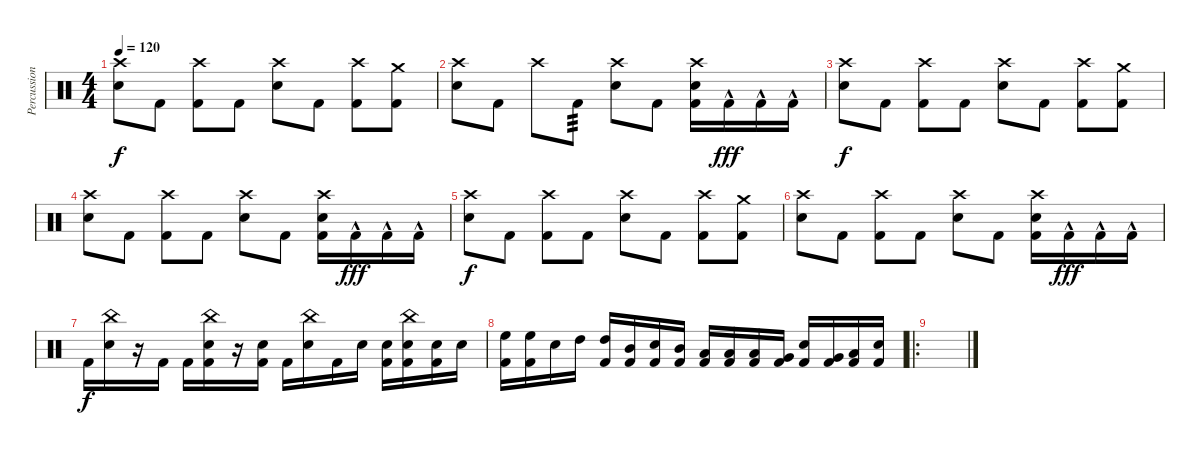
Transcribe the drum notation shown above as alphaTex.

\track ("Percussion" "Percussion") {instrument percussion}
\staff {score}
\articulation defaults
\ts (4 4)
\tempo 120
\clef neutral
\ks c
("Crash high (hit)" "Snare (hit) 2").8{dy f} "Kick (hit) 2".8 ("Crash high (hit)" "Kick (hit) 2").8 "Kick (hit) 2".8 ("Crash high (hit)" "Snare (hit) 2").8 "Kick (hit) 2".8 ("Crash high (hit)" "Kick (hit) 2").8 ("Crash medium (hit)" "Kick (hit) 2").8 |
("Crash high (hit)" "Snare (hit) 2").8 "Kick (hit) 2".8 "Crash high (hit)".8 "Kick (hit) 2".8{tp 3} ("Crash high (hit)" "Snare (hit) 2").8 "Kick (hit) 2".8 ("Crash high (hit)" "Snare (hit) 2" "Kick (hit) 2").16 "Kick (hit) 2"{hac}.16{dy fff} "Kick (hit) 2"{hac}.16 "Kick (hit) 2"{hac}.16 |
("Crash high (hit)" "Snare (hit) 2").8{dy f} "Kick (hit) 2".8 ("Crash high (hit)" "Kick (hit) 2").8 "Kick (hit) 2".8 ("Crash high (hit)" "Snare (hit) 2").8 "Kick (hit) 2".8 ("Crash high (hit)" "Kick (hit) 2").8 ("Crash medium (hit)" "Kick (hit) 2").8 |
("Crash high (hit)" "Snare (hit) 2").8 "Kick (hit) 2".8 ("Crash high (hit)" "Kick (hit) 2").8 "Kick (hit) 2".8 ("Crash high (hit)" "Snare (hit) 2").8 "Kick (hit) 2".8 ("Crash high (hit)" "Snare (hit) 2" "Kick (hit) 2").16 "Kick (hit) 2"{hac}.16{dy fff} "Kick (hit) 2"{hac}.16 "Kick (hit) 2"{hac}.16 |
("Crash high (hit)" "Snare (hit) 2").8{dy f} "Kick (hit) 2".8 ("Crash high (hit)" "Kick (hit) 2").8 "Kick (hit) 2".8 ("Crash high (hit)" "Snare (hit) 2").8 "Kick (hit) 2".8 ("Crash high (hit)" "Kick (hit) 2").8 ("Crash medium (hit)" "Kick (hit) 2").8 |
("Crash high (hit)" "Snare (hit) 2").8 "Kick (hit) 2".8 ("Crash high (hit)" "Kick (hit) 2").8 "Kick (hit) 2".8 ("Crash high (hit)" "Snare (hit) 2").8 "Kick (hit) 2".8 ("Crash high (hit)" "Snare (hit) 2" "Kick (hit) 2").16 "Kick (hit) 2"{hac}.16{dy fff} "Kick (hit) 2"{hac}.16 "Kick (hit) 2"{hac}.16 |
"Kick (hit) 2".16{dy f} ("China (hit)" "Snare (hit) 2").16 r.16 "Kick (hit) 2".16 "Kick (hit) 2".16 ("China (hit)" "Snare (hit) 2" "Kick (hit) 2").16 r.16 ("Snare (hit) 2" "Kick (hit) 2").16 "Kick (hit) 2".16 ("China (hit)" "Snare (hit) 2").16 "Kick (hit) 2".16 "Snare (hit) 2".16 ("Snare (hit) 2" "Kick (hit) 2").16 ("China (hit)" "Snare (hit) 2" "Kick (hit) 2").16 ("Snare (hit) 2" "Kick (hit) 2").16 "Snare (hit) 2".16 |
("High Floor Tom (hit)" "Kick (hit) 2").16 ("High Floor Tom (hit)" "Kick (hit) 2").16 "Snare (hit) 2".16 "High Tom (hit)".16 ("High Tom (hit)" "Kick (hit) 2").16 ("Mid Tom (hit)" "Kick (hit) 2").16 ("Snare (hit) 2" "Kick (hit) 2").16 ("Mid Tom (hit)" "Kick (hit) 2").16 ("Low Tom (hit)" "Kick (hit) 2").16 ("Low Tom (hit)" "Kick (hit) 2").16 ("Low Tom (hit)" "Kick (hit) 2").16 ("Very Low Tom (hit)" "Kick (hit) 2").16 ("Snare (hit) 2" "Kick (hit) 2").16 ("Very Low Tom (hit)" "Kick (hit) 2").16 ("Low Floor Tom (hit)" "Kick (hit) 2").16 ("Snare (hit) 2" "Kick (hit) 2").16 |
\ro
